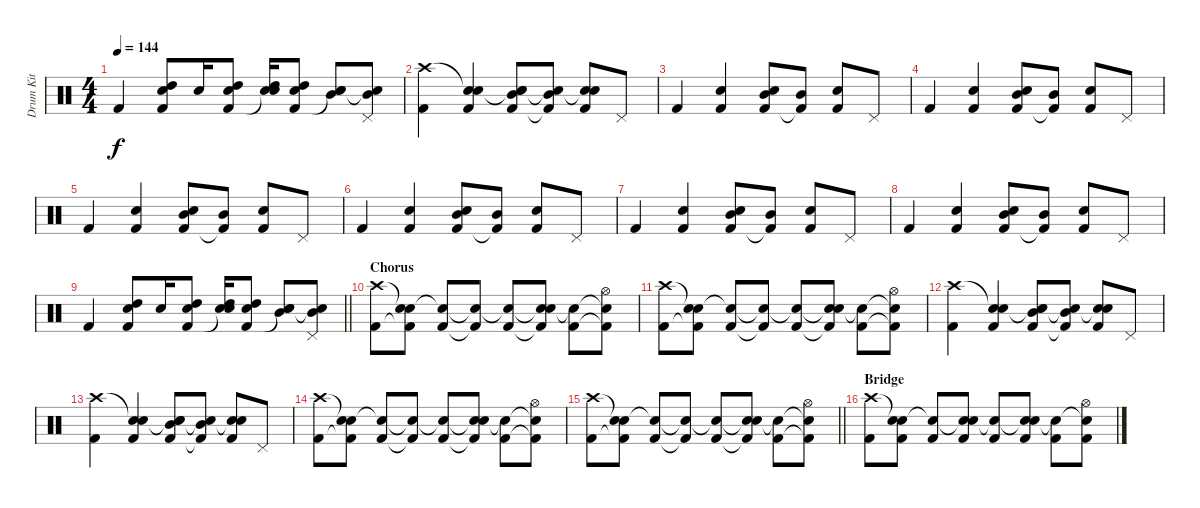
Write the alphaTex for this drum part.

\track ("Drum Kit" "Drum Kit") {instrument percussion}
\staff {score}
\articulation defaults
\ts (4 4)
\tempo 144
\clef neutral
\ks c "Kick (hit) 2".4{dy f}
("Kick (hit) 2" "High Tom (hit)" "Snare (hit) 2").8 "Snare (hit) 2".16 ("Kick (hit) 2" "High Tom (hit)" "Snare (hit) 2").8 ("Snare (hit)"{t} "High Tom (hit)" "Snare (hit) 2").16 ("Kick (hit) 2" "High Tom (hit)" "Snare (hit) 2").8 ("Snare (hit)"{t} "Mid Tom (hit)" "Snare (hit) 2").8 ("Snare (hit)"{t} "Mid Tom (hit)" "Pedal Hi-Hat (hit)").8 |
("Kick (hit) 2" "Crash high (hit)").4 ("Kick (hit) 2" "Snare (hit)"{t} "Snare (hit) 2").4 ("Kick (hit) 2" "Snare (hit)"{t} "Electric Snare (hit)" "Mid Tom (hit)").8 ("Kick (hit) 2"{t} "Snare (hit)"{t} "Mid Tom (hit)").8 ("Kick (hit) 2" "Snare (hit)"{t} "Snare (hit) 2").8 "Pedal Hi-Hat (hit)".8 |
"Kick (hit) 2".4 ("Kick (hit) 2" "Snare (hit) 2").4 ("Kick (hit) 2" "Electric Snare (hit)" "Mid Tom (hit)").8 ("Kick (hit) 2"{t} "Mid Tom (hit)").8 ("Kick (hit) 2" "Snare (hit) 2").8 "Pedal Hi-Hat (hit)".8 |
"Kick (hit) 2".4 ("Kick (hit) 2" "Snare (hit) 2").4 ("Kick (hit) 2" "Electric Snare (hit)" "Mid Tom (hit)").8 ("Kick (hit) 2"{t} "Mid Tom (hit)").8 ("Kick (hit) 2" "Snare (hit) 2").8 "Pedal Hi-Hat (hit)".8 |
"Kick (hit) 2".4 ("Kick (hit) 2" "Snare (hit) 2").4 ("Kick (hit) 2" "Electric Snare (hit)" "Mid Tom (hit)").8 ("Kick (hit) 2"{t} "Mid Tom (hit)").8 ("Kick (hit) 2" "Snare (hit) 2").8 "Pedal Hi-Hat (hit)".8 |
"Kick (hit) 2".4 ("Kick (hit) 2" "Snare (hit) 2").4 ("Kick (hit) 2" "Electric Snare (hit)" "Mid Tom (hit)").8 ("Kick (hit) 2"{t} "Mid Tom (hit)").8 ("Kick (hit) 2" "Snare (hit) 2").8 "Pedal Hi-Hat (hit)".8 |
"Kick (hit) 2".4 ("Kick (hit) 2" "Snare (hit) 2").4 ("Kick (hit) 2" "Electric Snare (hit)" "Mid Tom (hit)").8 ("Kick (hit) 2"{t} "Mid Tom (hit)").8 ("Kick (hit) 2" "Snare (hit) 2").8 "Pedal Hi-Hat (hit)".8 |
"Kick (hit) 2".4 ("Kick (hit) 2" "Snare (hit) 2").4 ("Kick (hit) 2" "Electric Snare (hit)" "Mid Tom (hit)").8 ("Kick (hit) 2"{t} "Mid Tom (hit)").8 ("Kick (hit) 2" "Snare (hit) 2").8 "Pedal Hi-Hat (hit)".8 |
\barLineRight lightlight "Kick (hit) 2".4
("Kick (hit) 2" "High Tom (hit)" "Snare (hit) 2").8 "Snare (hit) 2".16 ("Kick (hit) 2" "High Tom (hit)" "Snare (hit) 2").8 ("Snare (hit)"{t} "High Tom (hit)" "Snare (hit) 2").16 ("Kick (hit) 2" "High Tom (hit)" "Snare (hit) 2").8 ("Snare (hit)"{t} "Mid Tom (hit)" "Snare (hit) 2").8 ("Snare (hit)"{t} "Mid Tom (hit)" "Pedal Hi-Hat (hit)").8 |
\section ("" "Chorus")
("Kick (hit) 2" "Crash high (hit)").8 ("Kick (hit) 2"{t} "Snare (hit)"{t} "Electric Snare (hit)").8 ("Kick (hit) 2" "Snare (hit)"{t}).8 ("Kick (hit) 2"{t} "Snare (hit)"{t}).8 ("Kick (hit) 2" "Snare (hit)"{t}).8 ("Kick (hit) 2"{t} "Snare (hit)"{t} "Electric Snare (hit)").8 ("Kick (hit) 2" "Snare (hit)"{t}).8 ("Kick (hit) 2"{t} "Snare (hit)"{t} "Hi-Hat (open)").8 |
("Kick (hit) 2" "Crash high (hit)").8 ("Kick (hit) 2"{t} "Snare (hit)"{t} "Electric Snare (hit)").8 ("Kick (hit) 2" "Snare (hit)"{t}).8 ("Kick (hit) 2"{t} "Snare (hit)"{t}).8 ("Kick (hit) 2" "Snare (hit)"{t}).8 ("Kick (hit) 2"{t} "Snare (hit)"{t} "Electric Snare (hit)").8 ("Kick (hit) 2" "Snare (hit)"{t}).8 ("Kick (hit) 2"{t} "Snare (hit)"{t} "Hi-Hat (open)").8 |
("Kick (hit) 2" "Crash high (hit)").4 ("Kick (hit) 2" "Snare (hit)"{t} "Snare (hit) 2").4 ("Kick (hit) 2" "Snare (hit)"{t} "Electric Snare (hit)" "Mid Tom (hit)").8 ("Kick (hit) 2"{t} "Snare (hit)"{t} "Mid Tom (hit)").8 ("Kick (hit) 2" "Snare (hit)"{t} "Snare (hit) 2").8 "Pedal Hi-Hat (hit)".8 |
("Kick (hit) 2" "Crash high (hit)").4 ("Kick (hit) 2" "Snare (hit)"{t} "Snare (hit) 2").4 ("Kick (hit) 2" "Snare (hit)"{t} "Electric Snare (hit)" "Mid Tom (hit)").8 ("Kick (hit) 2"{t} "Snare (hit)"{t} "Mid Tom (hit)").8 ("Kick (hit) 2" "Snare (hit)"{t} "Snare (hit) 2").8 "Pedal Hi-Hat (hit)".8 |
("Kick (hit) 2" "Crash high (hit)").8 ("Kick (hit) 2"{t} "Snare (hit)"{t} "Electric Snare (hit)").8 ("Kick (hit) 2" "Snare (hit)"{t}).8 ("Kick (hit) 2"{t} "Snare (hit)"{t}).8 ("Kick (hit) 2" "Snare (hit)"{t}).8 ("Kick (hit) 2"{t} "Snare (hit)"{t} "Electric Snare (hit)").8 ("Kick (hit) 2" "Snare (hit)"{t}).8 ("Kick (hit) 2"{t} "Snare (hit)"{t} "Hi-Hat (open)").8 |
\barLineRight lightlight
("Kick (hit) 2" "Crash high (hit)").8 ("Kick (hit) 2"{t} "Snare (hit)"{t} "Electric Snare (hit)").8 ("Kick (hit) 2" "Snare (hit)"{t}).8 ("Kick (hit) 2"{t} "Snare (hit)"{t}).8 ("Kick (hit) 2" "Snare (hit)"{t}).8 ("Kick (hit) 2"{t} "Snare (hit)"{t} "Electric Snare (hit)").8 ("Kick (hit) 2" "Snare (hit)"{t}).8 ("Kick (hit) 2"{t} "Snare (hit)"{t} "Hi-Hat (open)").8 |
\section ("" "Bridge")
("Kick (hit) 2" "Crash high (hit)").8 ("Kick (hit) 2" "Snare (hit)"{t} "Electric Snare (hit)").8 ("Kick (hit) 2" "Snare (hit)"{t}).8 ("Kick (hit) 2" "Snare (hit)"{t} "Electric Snare (hit)").8 ("Kick (hit) 2" "Snare (hit)"{t}).8 ("Kick (hit) 2" "Snare (hit)"{t} "Electric Snare (hit)").8 ("Kick (hit) 2" "Snare (hit)"{t}).8 ("Kick (hit) 2" "Snare (hit)"{t} "Hi-Hat (open)").8
